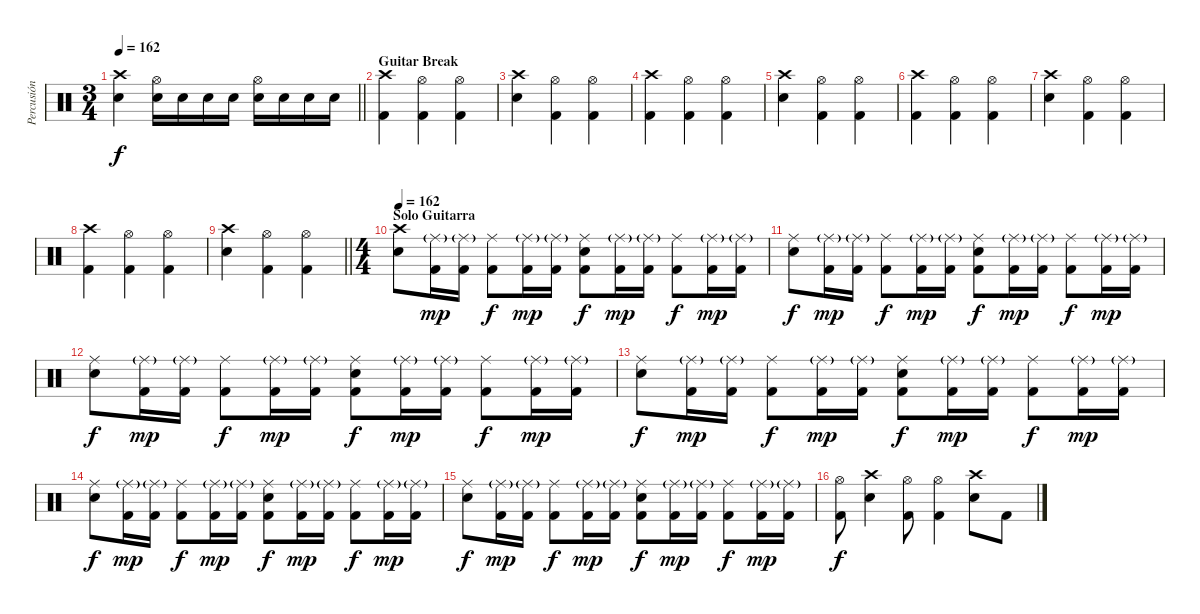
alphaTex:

\track ("Percusión" "Percusión") {instrument percussion}
\staff {score}
\articulation defaults
\ts (3 4)
\tempo 162
\clef neutral
\barLineRight lightlight
\ks c
("Crash high (hit)" "Electric Snare (hit)").4{dy f} ("Hi-Hat (open)" "Electric Snare (hit)").16 "Electric Snare (hit)".16 "Electric Snare (hit)".16 "Electric Snare (hit)".16 ("Hi-Hat (open)" "Electric Snare (hit)").16 "Electric Snare (hit)".16 "Electric Snare (hit)".16 "Electric Snare (hit)".16 |
\section ("" "Guitar Break")
("Crash high (hit)" "Kick (hit) 2").4 ("Hi-Hat (open)" "Kick (hit) 2").4 ("Hi-Hat (open)" "Kick (hit) 2").4 |
("Crash high (hit)" "Electric Snare (hit)").4 ("Hi-Hat (open)" "Kick (hit) 2").4 ("Hi-Hat (open)" "Kick (hit) 2").4 |
("Crash high (hit)" "Kick (hit) 2").4 ("Hi-Hat (open)" "Kick (hit) 2").4 ("Hi-Hat (open)" "Kick (hit) 2").4 |
("Crash high (hit)" "Electric Snare (hit)").4 ("Hi-Hat (open)" "Kick (hit) 2").4 ("Hi-Hat (open)" "Kick (hit) 2").4 |
("Crash high (hit)" "Kick (hit) 2").4 ("Hi-Hat (open)" "Kick (hit) 2").4 ("Hi-Hat (open)" "Kick (hit) 2").4 |
("Crash high (hit)" "Electric Snare (hit)").4 ("Hi-Hat (open)" "Kick (hit) 2").4 ("Hi-Hat (open)" "Kick (hit) 2").4 |
("Crash high (hit)" "Kick (hit) 2").4 ("Hi-Hat (open)" "Kick (hit) 2").4 ("Hi-Hat (open)" "Kick (hit) 2").4 |
\barLineRight lightlight
("Crash high (hit)" "Electric Snare (hit)").4 ("Hi-Hat (open)" "Kick (hit) 2").4 ("Hi-Hat (open)" "Kick (hit) 2").4 |
\ts (4 4)
\section ("" "Solo Guitarra")
\tempo 162
("Crash high (hit)" "Electric Snare (hit)").8 ("Ride (middle)"{g} "Kick (hit) 2").16{dy mp} ("Ride (middle)"{g} "Kick (hit) 2").16 ("Ride (middle)" "Kick (hit) 2").8{dy f} ("Ride (middle)"{g} "Kick (hit) 2").16{dy mp} ("Ride (middle)"{g} "Kick (hit) 2").16 ("Ride (middle)" "Electric Snare (hit)" "Kick (hit) 2").8{dy f} ("Ride (middle)"{g} "Kick (hit) 2").16{dy mp} ("Ride (middle)"{g} "Kick (hit) 2").16 ("Ride (middle)" "Kick (hit) 2").8{dy f} ("Ride (middle)"{g} "Kick (hit) 2").16{dy mp} ("Ride (middle)"{g} "Kick (hit) 2").16 |
("Ride (middle)" "Electric Snare (hit)").8{dy f} ("Ride (middle)"{g} "Kick (hit) 2").16{dy mp} ("Ride (middle)"{g} "Kick (hit) 2").16 ("Ride (middle)" "Kick (hit) 2").8{dy f} ("Ride (middle)"{g} "Kick (hit) 2").16{dy mp} ("Ride (middle)"{g} "Kick (hit) 2").16 ("Ride (middle)" "Electric Snare (hit)" "Kick (hit) 2").8{dy f} ("Ride (middle)"{g} "Kick (hit) 2").16{dy mp} ("Ride (middle)"{g} "Kick (hit) 2").16 ("Ride (middle)" "Kick (hit) 2").8{dy f} ("Ride (middle)"{g} "Kick (hit) 2").16{dy mp} ("Ride (middle)"{g} "Kick (hit) 2").16 |
("Ride (middle)" "Electric Snare (hit)").8{dy f} ("Ride (middle)"{g} "Kick (hit) 2").16{dy mp} ("Ride (middle)"{g} "Kick (hit) 2").16 ("Ride (middle)" "Kick (hit) 2").8{dy f} ("Ride (middle)"{g} "Kick (hit) 2").16{dy mp} ("Ride (middle)"{g} "Kick (hit) 2").16 ("Ride (middle)" "Electric Snare (hit)" "Kick (hit) 2").8{dy f} ("Ride (middle)"{g} "Kick (hit) 2").16{dy mp} ("Ride (middle)"{g} "Kick (hit) 2").16 ("Ride (middle)" "Kick (hit) 2").8{dy f} ("Ride (middle)"{g} "Kick (hit) 2").16{dy mp} ("Ride (middle)"{g} "Kick (hit) 2").16 |
("Ride (middle)" "Electric Snare (hit)").8{dy f} ("Ride (middle)"{g} "Kick (hit) 2").16{dy mp} ("Ride (middle)"{g} "Kick (hit) 2").16 ("Ride (middle)" "Kick (hit) 2").8{dy f} ("Ride (middle)"{g} "Kick (hit) 2").16{dy mp} ("Ride (middle)"{g} "Kick (hit) 2").16 ("Ride (middle)" "Electric Snare (hit)" "Kick (hit) 2").8{dy f} ("Ride (middle)"{g} "Kick (hit) 2").16{dy mp} ("Ride (middle)"{g} "Kick (hit) 2").16 ("Ride (middle)" "Kick (hit) 2").8{dy f} ("Ride (middle)"{g} "Kick (hit) 2").16{dy mp} ("Ride (middle)"{g} "Kick (hit) 2").16 |
("Ride (middle)" "Electric Snare (hit)").8{dy f} ("Ride (middle)"{g} "Kick (hit) 2").16{dy mp} ("Ride (middle)"{g} "Kick (hit) 2").16 ("Ride (middle)" "Kick (hit) 2").8{dy f} ("Ride (middle)"{g} "Kick (hit) 2").16{dy mp} ("Ride (middle)"{g} "Kick (hit) 2").16 ("Ride (middle)" "Electric Snare (hit)" "Kick (hit) 2").8{dy f} ("Ride (middle)"{g} "Kick (hit) 2").16{dy mp} ("Ride (middle)"{g} "Kick (hit) 2").16 ("Ride (middle)" "Kick (hit) 2").8{dy f} ("Ride (middle)"{g} "Kick (hit) 2").16{dy mp} ("Ride (middle)"{g} "Kick (hit) 2").16 |
("Ride (middle)" "Electric Snare (hit)").8{dy f} ("Ride (middle)"{g} "Kick (hit) 2").16{dy mp} ("Ride (middle)"{g} "Kick (hit) 2").16 ("Ride (middle)" "Kick (hit) 2").8{dy f} ("Ride (middle)"{g} "Kick (hit) 2").16{dy mp} ("Ride (middle)"{g} "Kick (hit) 2").16 ("Ride (middle)" "Electric Snare (hit)" "Kick (hit) 2").8{dy f} ("Ride (middle)"{g} "Kick (hit) 2").16{dy mp} ("Ride (middle)"{g} "Kick (hit) 2").16 ("Ride (middle)" "Kick (hit) 2").8{dy f} ("Ride (middle)"{g} "Kick (hit) 2").16{dy mp} ("Ride (middle)"{g} "Kick (hit) 2").16 |
("Hi-Hat (open)" "Kick (hit) 2").8{dy f} ("Crash high (hit)" "Electric Snare (hit)").4 ("Hi-Hat (open)" "Kick (hit) 2").8 ("Hi-Hat (open)" "Kick (hit) 2").4 ("Crash high (hit)" "Electric Snare (hit)").8 "Kick (hit) 2".8
